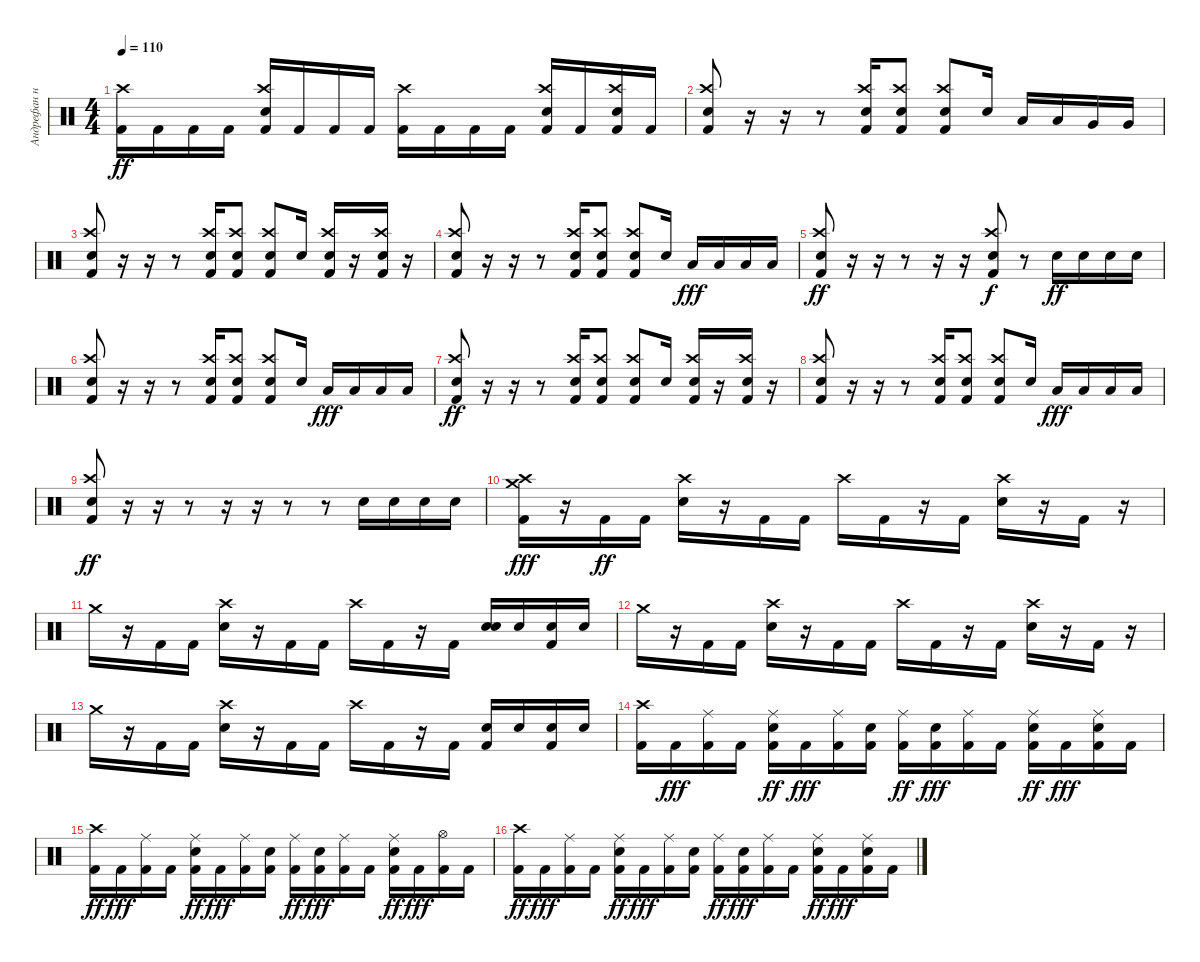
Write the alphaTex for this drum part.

\track ("Андрефан на драмах" "Андрефан н") {instrument percussion}
\staff {score}
\articulation defaults
\ts (4 4)
\tempo 110
\clef neutral
\ks c
("Kick (hit) 2" "Crash high (hit)").16{dy ff} "Kick (hit) 2".16 "Kick (hit) 2".16 "Kick (hit) 2".16 ("Kick (hit) 2" "Crash high (hit)" "Electric Snare (hit)").16 "Kick (hit) 2".16 "Kick (hit) 2".16 "Kick (hit) 2".16 ("Kick (hit) 2" "Crash high (hit)").16 "Kick (hit) 2".16 "Kick (hit) 2".16 "Kick (hit) 2".16 ("Kick (hit) 2" "Crash high (hit)" "Electric Snare (hit)").16 "Kick (hit) 2".16 ("Kick (hit) 2" "Crash high (hit)" "Electric Snare (hit)").16 "Kick (hit) 2".16 |
("Crash high (hit)" "Electric Snare (hit)" "Kick (hit) 2").8 r.16 r.16 r.8 ("Crash high (hit)" "Electric Snare (hit)" "Kick (hit) 2").16 ("Crash high (hit)" "Electric Snare (hit)" "Kick (hit) 2").8 ("Crash high (hit)" "Electric Snare (hit)" "Kick (hit) 2").8 "Electric Snare (hit)".16 "Low Tom (hit)".16 "Low Tom (hit)".16 "Very Low Tom (hit)".16 "Very Low Tom (hit)".16 |
("Crash high (hit)" "Electric Snare (hit)" "Kick (hit) 2").8 r.16 r.16 r.8 ("Crash high (hit)" "Electric Snare (hit)" "Kick (hit) 2").16 ("Crash high (hit)" "Electric Snare (hit)" "Kick (hit) 2").8 ("Crash high (hit)" "Electric Snare (hit)" "Kick (hit) 2").8 "Electric Snare (hit)".16 ("Kick (hit) 2" "Crash high (hit)" "Electric Snare (hit)").16 r.16 ("Kick (hit) 2" "Crash high (hit)" "Electric Snare (hit)").16 r.16 |
("Crash high (hit)" "Electric Snare (hit)" "Kick (hit) 2").8 r.16 r.16 r.8 ("Crash high (hit)" "Electric Snare (hit)" "Kick (hit) 2").16 ("Crash high (hit)" "Electric Snare (hit)" "Kick (hit) 2").8 ("Crash high (hit)" "Electric Snare (hit)" "Kick (hit) 2").8 "Electric Snare (hit)".16 "Low Floor Tom (hit)".16{dy fff} "Low Floor Tom (hit)".16 "Low Tom (hit)".16 "Low Tom (hit)".16 |
("Crash high (hit)" "Electric Snare (hit)" "Kick (hit) 2").8{dy ff} r.16 r.16 r.8 r.16 r.16 ("Crash high (hit)" "Electric Snare (hit)" "Kick (hit) 2").8{dy f} r.8 "Electric Snare (hit)".16{dy ff} "Electric Snare (hit)".16 "Electric Snare (hit)".16 "Electric Snare (hit)".16 |
("Crash high (hit)" "Electric Snare (hit)" "Kick (hit) 2").8 r.16 r.16 r.8 ("Crash high (hit)" "Electric Snare (hit)" "Kick (hit) 2").16 ("Crash high (hit)" "Electric Snare (hit)" "Kick (hit) 2").8 ("Crash high (hit)" "Electric Snare (hit)" "Kick (hit) 2").8 "Electric Snare (hit)".16 "Low Floor Tom (hit)".16{dy fff} "Low Floor Tom (hit)".16 "Low Tom (hit)".16 "Low Tom (hit)".16 |
("Crash high (hit)" "Electric Snare (hit)" "Kick (hit) 2").8{dy ff} r.16 r.16 r.8 ("Crash high (hit)" "Electric Snare (hit)" "Kick (hit) 2").16 ("Crash high (hit)" "Electric Snare (hit)" "Kick (hit) 2").8 ("Crash high (hit)" "Electric Snare (hit)" "Kick (hit) 2").8 "Electric Snare (hit)".16 ("Kick (hit) 2" "Crash high (hit)" "Electric Snare (hit)").16 r.16 ("Kick (hit) 2" "Crash high (hit)" "Electric Snare (hit)").16 r.16 |
("Crash high (hit)" "Electric Snare (hit)" "Kick (hit) 2").8 r.16 r.16 r.8 ("Crash high (hit)" "Electric Snare (hit)" "Kick (hit) 2").16 ("Crash high (hit)" "Electric Snare (hit)" "Kick (hit) 2").8 ("Crash high (hit)" "Electric Snare (hit)" "Kick (hit) 2").8 "Electric Snare (hit)".16 "Low Floor Tom (hit)".16{dy fff} "Low Floor Tom (hit)".16 "Low Tom (hit)".16 "Low Tom (hit)".16 |
("Crash high (hit)" "Electric Snare (hit)" "Kick (hit) 2").8{dy ff} r.16 r.16 r.8 r.16 r.16 r.8 r.8 "Electric Snare (hit)".16 "Electric Snare (hit)".16 "Electric Snare (hit)".16 "Electric Snare (hit)".16 |
("Crash medium (hit)" "Kick (hit) 2" "Crash high (hit)").16{dy fff} r.16 "Kick (hit) 2".16{dy ff} "Kick (hit) 2".16 ("Electric Snare (hit)" "Crash high (hit)").16 r.16 "Kick (hit) 2".16 "Kick (hit) 2".16 "Crash high (hit)".16 "Kick (hit) 2".16 r.16 "Kick (hit) 2".16 ("Electric Snare (hit)" "Crash high (hit)").16 r.16 "Kick (hit) 2".16 r.16 |
"Crash medium (hit)".16 r.16 "Kick (hit) 2".16 "Kick (hit) 2".16 ("Electric Snare (hit)" "Crash high (hit)").16 r.16 "Kick (hit) 2".16 "Kick (hit) 2".16 "Crash high (hit)".16 "Kick (hit) 2".16 r.16 "Kick (hit) 2".16 ("Electric Snare (hit)" "Electric Snare (hit)").16 "Electric Snare (hit)".16 ("Electric Snare (hit)" "Kick (hit) 2").16 "Electric Snare (hit)".16 |
"Crash medium (hit)".16 r.16 "Kick (hit) 2".16 "Kick (hit) 2".16 ("Electric Snare (hit)" "Crash high (hit)").16 r.16 "Kick (hit) 2".16 "Kick (hit) 2".16 "Crash high (hit)".16 "Kick (hit) 2".16 r.16 "Kick (hit) 2".16 ("Electric Snare (hit)" "Crash high (hit)").16 r.16 "Kick (hit) 2".16 r.16 |
"Crash medium (hit)".16 r.16 "Kick (hit) 2".16 "Kick (hit) 2".16 ("Electric Snare (hit)" "Crash high (hit)").16 r.16 "Kick (hit) 2".16 "Kick (hit) 2".16 "Crash high (hit)".16 "Kick (hit) 2".16 r.16 "Kick (hit) 2".16 ("Electric Snare (hit)" "Kick (hit) 2").16 "Electric Snare (hit)".16 ("Electric Snare (hit)" "Kick (hit) 2").16 "Electric Snare (hit)".16 |
("Crash high (hit)" "Kick (hit) 2").16 "Kick (hit) 2".16{dy fff} ("Ride (middle)" "Kick (hit) 2").16 "Kick (hit) 2".16 ("Ride (middle)" "Electric Snare (hit)" "Kick (hit) 2").16{dy ff} "Kick (hit) 2".16{dy fff} ("Ride (middle)" "Kick (hit) 2").16 ("Electric Snare (hit)" "Kick (hit) 2").16 ("Ride (middle)" "Kick (hit) 2").16{dy ff} ("Electric Snare (hit)" "Kick (hit) 2").16{dy fff} ("Ride (middle)" "Kick (hit) 2").16 "Kick (hit) 2".16 ("Ride (middle)" "Electric Snare (hit)" "Kick (hit) 2").16{dy ff} "Kick (hit) 2".16{dy fff} ("Ride (middle)" "Electric Snare (hit)" "Kick (hit) 2").16 "Kick (hit) 2".16 |
("Crash high (hit)" "Kick (hit) 2").16{dy ff} "Kick (hit) 2".16{dy fff} ("Ride (middle)" "Kick (hit) 2").16 "Kick (hit) 2".16 ("Ride (middle)" "Electric Snare (hit)" "Kick (hit) 2").16{dy ff} "Kick (hit) 2".16{dy fff} ("Ride (middle)" "Kick (hit) 2").16 ("Electric Snare (hit)" "Kick (hit) 2").16 ("Ride (middle)" "Kick (hit) 2").16{dy ff} ("Electric Snare (hit)" "Kick (hit) 2").16{dy fff} ("Ride (middle)" "Kick (hit) 2").16 "Kick (hit) 2".16 ("Ride (middle)" "Electric Snare (hit)" "Kick (hit) 2").16{dy ff} "Kick (hit) 2".16{dy fff} ("Hi-Hat (open)" "Kick (hit) 2").16 "Kick (hit) 2".16 |
("Crash high (hit)" "Kick (hit) 2").16{dy ff} "Kick (hit) 2".16{dy fff} ("Ride (middle)" "Kick (hit) 2").16 "Kick (hit) 2".16 ("Ride (middle)" "Electric Snare (hit)" "Kick (hit) 2").16{dy ff} "Kick (hit) 2".16{dy fff} ("Ride (middle)" "Kick (hit) 2").16 ("Electric Snare (hit)" "Kick (hit) 2").16 ("Ride (middle)" "Kick (hit) 2").16{dy ff} ("Electric Snare (hit)" "Kick (hit) 2").16{dy fff} ("Ride (middle)" "Kick (hit) 2").16 "Kick (hit) 2".16 ("Ride (middle)" "Electric Snare (hit)" "Kick (hit) 2").16{dy ff} "Kick (hit) 2".16{dy fff} ("Ride (middle)" "Electric Snare (hit)" "Kick (hit) 2").16 "Kick (hit) 2".16
